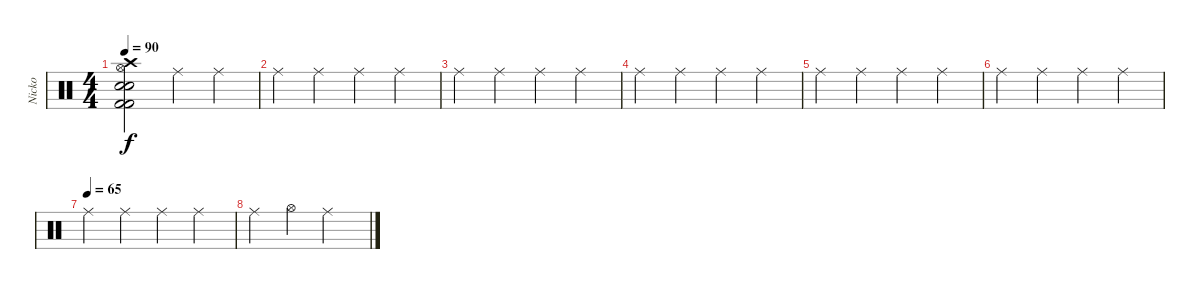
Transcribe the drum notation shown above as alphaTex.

\track ("Nicko " "Nicko ") {instrument percussion}
\staff {score}
\articulation defaults
\ts (4 4)
\tempo 90
\clef neutral
\ks c
("Hi-Hat (open)" "Kick (hit) 2" "Kick (hit) 2" "Snare (hit) 2" "Snare (hit) 2" "Crash high (hit)").2{dy f} "Ride (middle)".4 "Ride (middle)".4 |
"Ride (middle)".4 "Ride (middle)".4 "Ride (middle)".4 "Ride (middle)".4 |
"Ride (middle)".4 "Ride (middle)".4 "Ride (middle)".4 "Ride (middle)".4 |
"Ride (middle)".4 "Ride (middle)".4 "Ride (middle)".4 "Ride (middle)".4 |
"Ride (middle)".4 "Ride (middle)".4 "Ride (middle)".4 "Ride (middle)".4 |
"Ride (middle)".4 "Ride (middle)".4 "Ride (middle)".4 "Ride (middle)".4 |
\tempo (65)
"Ride (middle)".4 "Ride (middle)".4 "Ride (middle)".4 "Ride (middle)".4 |
"Ride (middle)".4 "Hi-Hat (open)".4 "Ride (middle)".2
